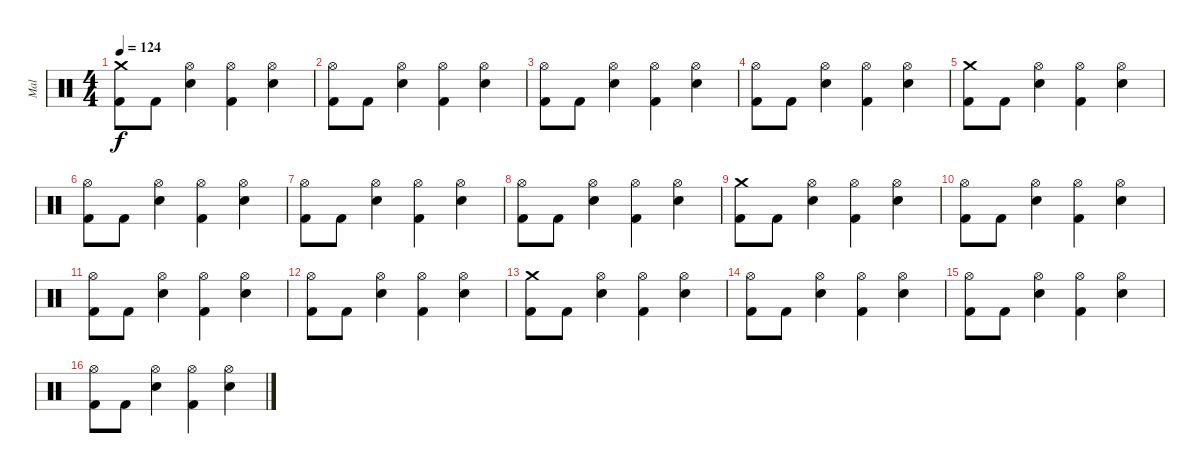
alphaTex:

\track ("Mal" "Mal") {instrument percussion}
\staff {score}
\articulation defaults
\ts (4 4)
\tempo 124
\clef neutral
\ks c
("Crash medium (hit)" "Kick (hit) 2").8{dy f} "Kick (hit) 2".8 ("Hi-Hat (open)" "Electric Snare (hit)").4 ("Hi-Hat (open)" "Kick (hit) 2").4 ("Hi-Hat (open)" "Electric Snare (hit)").4 |
("Hi-Hat (open)" "Kick (hit) 2").8 "Kick (hit) 2".8 ("Hi-Hat (open)" "Electric Snare (hit)").4 ("Hi-Hat (open)" "Kick (hit) 2").4 ("Hi-Hat (open)" "Electric Snare (hit)").4 |
("Hi-Hat (open)" "Kick (hit) 2").8 "Kick (hit) 2".8 ("Hi-Hat (open)" "Electric Snare (hit)").4 ("Hi-Hat (open)" "Kick (hit) 2").4 ("Hi-Hat (open)" "Electric Snare (hit)").4 |
("Hi-Hat (open)" "Kick (hit) 2").8 "Kick (hit) 2".8 ("Hi-Hat (open)" "Electric Snare (hit)").4 ("Hi-Hat (open)" "Kick (hit) 2").4 ("Hi-Hat (open)" "Electric Snare (hit)").4 |
("Crash medium (hit)" "Kick (hit) 2").8 "Kick (hit) 2".8 ("Hi-Hat (open)" "Electric Snare (hit)").4 ("Hi-Hat (open)" "Kick (hit) 2").4 ("Hi-Hat (open)" "Electric Snare (hit)").4 |
("Hi-Hat (open)" "Kick (hit) 2").8 "Kick (hit) 2".8 ("Hi-Hat (open)" "Electric Snare (hit)").4 ("Hi-Hat (open)" "Kick (hit) 2").4 ("Hi-Hat (open)" "Electric Snare (hit)").4 |
("Hi-Hat (open)" "Kick (hit) 2").8 "Kick (hit) 2".8 ("Hi-Hat (open)" "Electric Snare (hit)").4 ("Hi-Hat (open)" "Kick (hit) 2").4 ("Hi-Hat (open)" "Electric Snare (hit)").4 |
("Hi-Hat (open)" "Kick (hit) 2").8 "Kick (hit) 2".8 ("Hi-Hat (open)" "Electric Snare (hit)").4 ("Hi-Hat (open)" "Kick (hit) 2").4 ("Hi-Hat (open)" "Electric Snare (hit)").4 |
("Crash medium (hit)" "Kick (hit) 2").8 "Kick (hit) 2".8 ("Hi-Hat (open)" "Electric Snare (hit)").4 ("Hi-Hat (open)" "Kick (hit) 2").4 ("Hi-Hat (open)" "Electric Snare (hit)").4 |
("Hi-Hat (open)" "Kick (hit) 2").8 "Kick (hit) 2".8 ("Hi-Hat (open)" "Electric Snare (hit)").4 ("Hi-Hat (open)" "Kick (hit) 2").4 ("Hi-Hat (open)" "Electric Snare (hit)").4 |
("Hi-Hat (open)" "Kick (hit) 2").8 "Kick (hit) 2".8 ("Hi-Hat (open)" "Electric Snare (hit)").4 ("Hi-Hat (open)" "Kick (hit) 2").4 ("Hi-Hat (open)" "Electric Snare (hit)").4 |
("Hi-Hat (open)" "Kick (hit) 2").8 "Kick (hit) 2".8 ("Hi-Hat (open)" "Electric Snare (hit)").4 ("Hi-Hat (open)" "Kick (hit) 2").4 ("Hi-Hat (open)" "Electric Snare (hit)").4 |
("Crash medium (hit)" "Kick (hit) 2").8 "Kick (hit) 2".8 ("Hi-Hat (open)" "Electric Snare (hit)").4 ("Hi-Hat (open)" "Kick (hit) 2").4 ("Hi-Hat (open)" "Electric Snare (hit)").4 |
("Hi-Hat (open)" "Kick (hit) 2").8 "Kick (hit) 2".8 ("Hi-Hat (open)" "Electric Snare (hit)").4 ("Hi-Hat (open)" "Kick (hit) 2").4 ("Hi-Hat (open)" "Electric Snare (hit)").4 |
("Hi-Hat (open)" "Kick (hit) 2").8 "Kick (hit) 2".8 ("Hi-Hat (open)" "Electric Snare (hit)").4 ("Hi-Hat (open)" "Kick (hit) 2").4 ("Hi-Hat (open)" "Electric Snare (hit)").4 |
("Hi-Hat (open)" "Kick (hit) 2").8 "Kick (hit) 2".8 ("Hi-Hat (open)" "Electric Snare (hit)").4 ("Hi-Hat (open)" "Kick (hit) 2").4 ("Hi-Hat (open)" "Electric Snare (hit)").4
